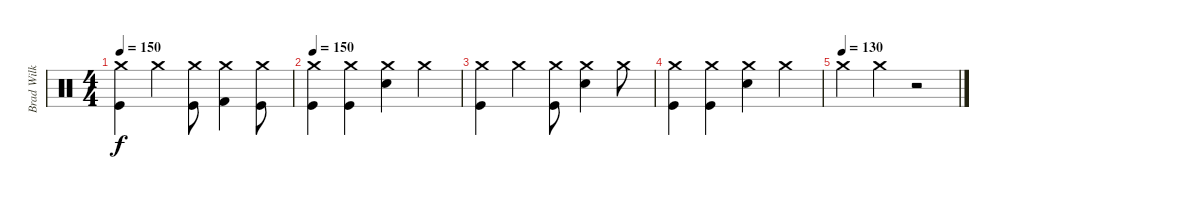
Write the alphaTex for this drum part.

\track ("Brad Wilk" "Brad Wilk") {instrument percussion}
\staff {score}
\articulation defaults
\ts (4 4)
\tempo 150
\clef neutral
\ks c
("Crash medium (hit)" "Kick (hit)").4{dy f} "Crash medium (hit)".4 ("Crash medium (hit)" "Kick (hit)").8 ("Crash medium (hit)" "Kick (hit) 2").4 ("Crash medium (hit)" "Kick (hit)").8 |
\tempo 150
("Crash medium (hit)" "Kick (hit)").4 ("Crash medium (hit)" "Kick (hit)").4 ("Crash medium (hit)" "Electric Snare (hit)").4 "Crash medium (hit)".4 |
("Crash medium (hit)" "Kick (hit)").4 "Crash medium (hit)".4 ("Crash medium (hit)" "Kick (hit)").8 ("Crash medium (hit)" "Electric Snare (hit)").4 "Crash medium (hit)".8 |
("Crash medium (hit)" "Kick (hit)").4 ("Crash medium (hit)" "Kick (hit)").4 ("Crash medium (hit)" "Electric Snare (hit)").4 "Crash medium (hit)".4 |
\tempo (130)
"Crash medium (hit)".4 "Crash medium (hit)".4 r.2
